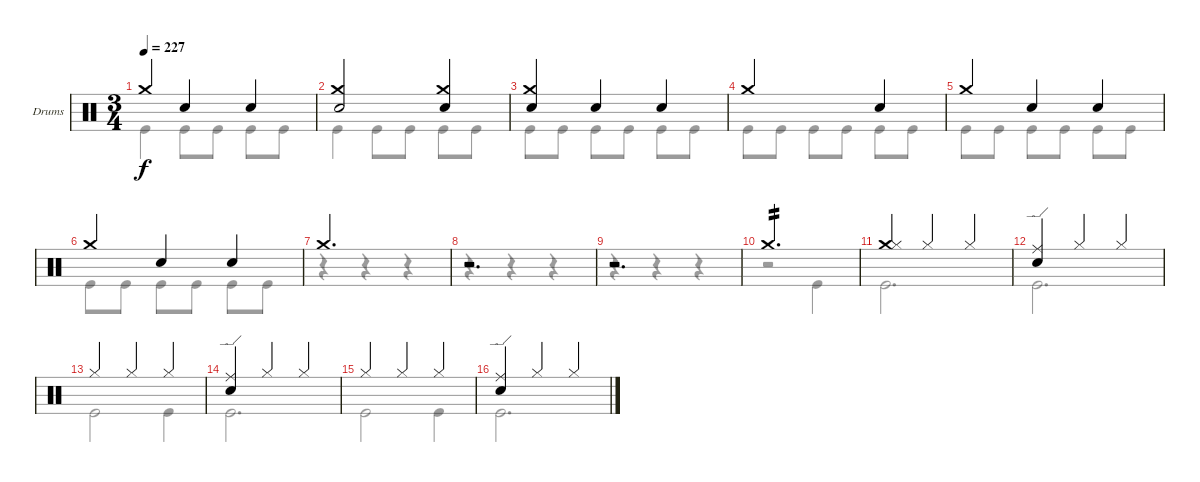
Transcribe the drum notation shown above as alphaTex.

\bracketExtendMode groupsimilarinstruments
\firstSystemTrackNameOrientation horizontal
\otherSystemsTrackNameOrientation horizontal
\track ("Drumkit" "Drums") {instrument percussion}
\staff {score}
\articulation defaults
\voice
\ts (3 4)
\tempo 227
\clef neutral
\ks c "Crash medium (hit)".4{dy f} "Snare (hit) 2".4 "Snare (hit) 2".4
|
("Crash medium (hit)" "Snare (hit) 2").2 ("Crash medium (hit)" "Snare (hit) 2").4 |
("Crash medium (hit)" "Snare (hit) 2").4 "Snare (hit) 2".4 "Snare (hit) 2".4 |
"Crash medium (hit)".2 "Snare (hit) 2".4 |
"Crash medium (hit)".4 "Snare (hit) 2".4 "Snare (hit) 2".4 |
"Crash medium (hit)".4 "Snare (hit) 2".4 "Snare (hit) 2".4 |
"Crash medium (hit)".2{d} |
r.2{d} |
r.2{d} |
"Crash medium (hit)".2{d tp 2} |
("Crash medium (hit)" "Hi-Hat (closed)").4 "Hi-Hat (closed)".4 "Hi-Hat (closed)".4 |
("Ride (edge)" "Snare (hit) 2").4 "Hi-Hat (closed)".4 "Hi-Hat (closed)".4 |
"Hi-Hat (closed)".4 "Hi-Hat (closed)".4 "Hi-Hat (closed)".4 |
("Ride (edge)" "Snare (hit) 2").4 "Hi-Hat (closed)".4 "Hi-Hat (closed)".4 |
"Hi-Hat (closed)".4 "Hi-Hat (closed)".4 "Hi-Hat (closed)".4 |
("Ride (edge)" "Snare (hit) 2").4 "Hi-Hat (closed)".4 "Hi-Hat (closed)".4
\voice
\clef neutral
\ottava regular
\simile none
\ks c "Kick (hit)".4{dy f} "Kick (hit)".8 "Kick (hit)".8 "Kick (hit)".8 "Kick (hit)".8
|
"Kick (hit)".4 "Kick (hit)".8 "Kick (hit)".8 "Kick (hit)".8 "Kick (hit)".8 |
"Kick (hit)".8 "Kick (hit)".8 "Kick (hit)".8 "Kick (hit)".8 "Kick (hit)".8 "Kick (hit)".8 |
"Kick (hit)".8 "Kick (hit)".8 "Kick (hit)".8 "Kick (hit)".8 "Kick (hit)".8 "Kick (hit)".8 |
"Kick (hit)".8 "Kick (hit)".8 "Kick (hit)".8 "Kick (hit)".8 "Kick (hit)".8 "Kick (hit)".8 |
"Kick (hit)".8 "Kick (hit)".8 "Kick (hit)".8 "Kick (hit)".8 "Kick (hit)".8 "Kick (hit)".8 |
r.4 r.4 r.4 |
r.4 r.4 r.4 |
r.4 r.4 r.4 |
r.2 "Kick (hit)".4 |
"Kick (hit)".2{d} |
"Kick (hit)".2{d} |
"Kick (hit)".2 "Kick (hit)".4 |
"Kick (hit)".2{d} |
"Kick (hit)".2 "Kick (hit)".4 |
"Kick (hit)".2{d}
